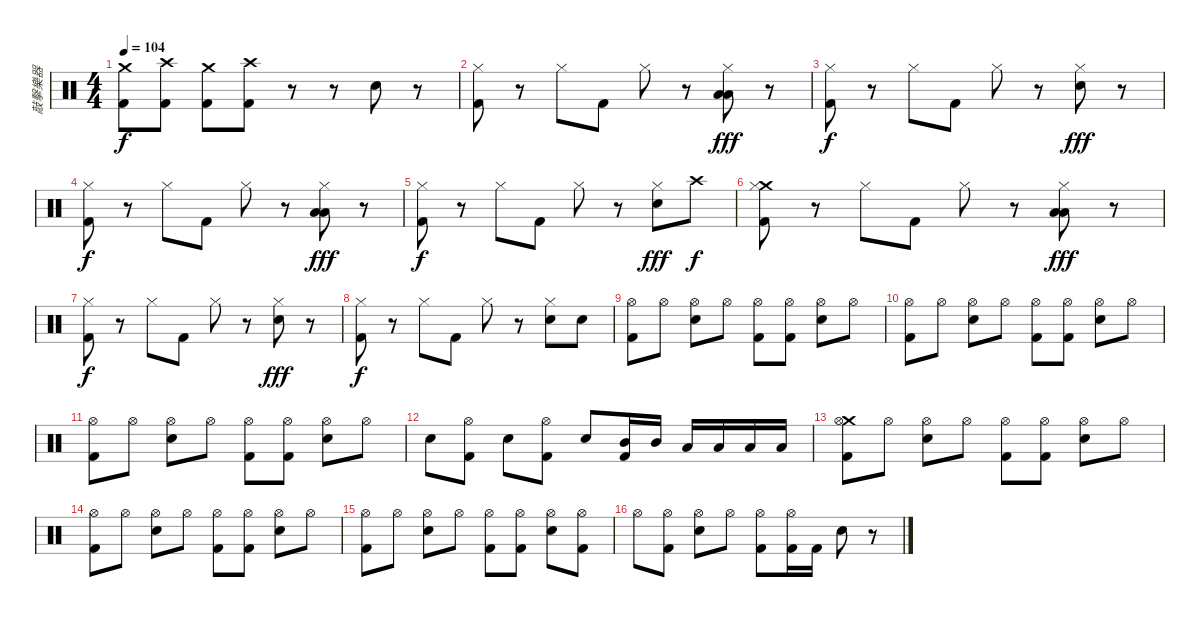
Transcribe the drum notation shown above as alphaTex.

\track ("敲擊樂器" "敲擊樂器") {instrument percussion}
\staff {score}
\articulation defaults
\ts (4 4)
\tempo 104
\clef neutral
\ks c
("Crash medium (hit)" "Kick (hit) 2").8{dy f} ("Crash high (hit)" "Kick (hit) 2").8 ("Crash medium (hit)" "Kick (hit) 2").8 ("Crash high (hit)" "Kick (hit) 2").8 r.8 r.8 "Electric Snare (hit)".8 r.8 |
("Hi-Hat (closed)" "Kick (hit) 2").8 r.8 "Hi-Hat (closed)".8 "Kick (hit) 2".8 "Hi-Hat (closed)".8 r.8 ("Hi-Hat (closed)" "Low Floor Tom (hit)" "Low Floor Tom (hit)").8{dy fff} r.8 |
("Hi-Hat (closed)" "Kick (hit) 2").8{dy f} r.8 "Hi-Hat (closed)".8 "Kick (hit) 2".8 "Hi-Hat (closed)".8 r.8 ("Hi-Hat (closed)" "Electric Snare (hit)").8{dy fff} r.8 |
("Hi-Hat (closed)" "Kick (hit) 2").8{dy f} r.8 "Hi-Hat (closed)".8 "Kick (hit) 2".8 "Hi-Hat (closed)".8 r.8 ("Hi-Hat (closed)" "Low Floor Tom (hit)" "Low Floor Tom (hit)").8{dy fff} r.8 |
("Hi-Hat (closed)" "Kick (hit) 2").8{dy f} r.8 "Hi-Hat (closed)".8 "Kick (hit) 2".8 "Hi-Hat (closed)".8 r.8 ("Hi-Hat (closed)" "Electric Snare (hit)").8{dy fff} "Crash high (hit)".8{dy f} |
("Crash medium (hit)" "Hi-Hat (closed)" "Kick (hit) 2").8 r.8 "Hi-Hat (closed)".8 "Kick (hit) 2".8 "Hi-Hat (closed)".8 r.8 ("Hi-Hat (closed)" "Low Floor Tom (hit)" "Low Floor Tom (hit)").8{dy fff} r.8 |
("Hi-Hat (closed)" "Kick (hit) 2").8{dy f} r.8 "Hi-Hat (closed)".8 "Kick (hit) 2".8 "Hi-Hat (closed)".8 r.8 ("Hi-Hat (closed)" "Electric Snare (hit)").8{dy fff} r.8 |
("Hi-Hat (closed)" "Kick (hit) 2").8{dy f} r.8 "Hi-Hat (closed)".8 "Kick (hit) 2".8 "Hi-Hat (closed)".8 r.8 ("Hi-Hat (closed)" "Electric Snare (hit)").8 "Electric Snare (hit)".8 |
("Hi-Hat (open)" "Kick (hit) 2").8 "Hi-Hat (open)".8 ("Hi-Hat (open)" "Electric Snare (hit)").8 "Hi-Hat (open)".8 ("Hi-Hat (open)" "Kick (hit) 2").8 ("Hi-Hat (open)" "Kick (hit) 2").8 ("Hi-Hat (open)" "Electric Snare (hit)").8 "Hi-Hat (open)".8 |
("Hi-Hat (open)" "Kick (hit) 2").8 "Hi-Hat (open)".8 ("Hi-Hat (open)" "Electric Snare (hit)").8 "Hi-Hat (open)".8 ("Hi-Hat (open)" "Kick (hit) 2").8 ("Hi-Hat (open)" "Kick (hit) 2").8 ("Hi-Hat (open)" "Electric Snare (hit)").8 "Hi-Hat (open)".8 |
("Hi-Hat (open)" "Kick (hit) 2").8 "Hi-Hat (open)".8 ("Hi-Hat (open)" "Electric Snare (hit)").8 "Hi-Hat (open)".8 ("Hi-Hat (open)" "Kick (hit) 2").8 ("Hi-Hat (open)" "Kick (hit) 2").8 ("Hi-Hat (open)" "Electric Snare (hit)").8 "Hi-Hat (open)".8 |
"Electric Snare (hit)".8 ("Hi-Hat (open)" "Kick (hit) 2").8 "Electric Snare (hit)".8 ("Hi-Hat (open)" "Kick (hit) 2").8 "Electric Snare (hit)".8 ("Mid Tom (hit)" "Kick (hit) 2").16 "Mid Tom (hit)".16 "Low Tom (hit)".16 "Low Tom (hit)".16 "Low Floor Tom (hit)".16 "Low Floor Tom (hit)".16 |
("Crash medium (hit)" "Hi-Hat (open)" "Kick (hit) 2").8 "Hi-Hat (open)".8 ("Hi-Hat (open)" "Electric Snare (hit)").8 "Hi-Hat (open)".8 ("Hi-Hat (open)" "Kick (hit) 2").8 ("Hi-Hat (open)" "Kick (hit) 2").8 ("Hi-Hat (open)" "Electric Snare (hit)").8 "Hi-Hat (open)".8 |
("Hi-Hat (open)" "Kick (hit) 2").8 "Hi-Hat (open)".8 ("Hi-Hat (open)" "Electric Snare (hit)").8 "Hi-Hat (open)".8 ("Hi-Hat (open)" "Kick (hit) 2").8 ("Hi-Hat (open)" "Kick (hit) 2").8 ("Hi-Hat (open)" "Electric Snare (hit)").8 "Hi-Hat (open)".8 |
("Hi-Hat (open)" "Kick (hit) 2").8 "Hi-Hat (open)".8 ("Hi-Hat (open)" "Electric Snare (hit)").8 "Hi-Hat (open)".8 ("Hi-Hat (open)" "Kick (hit) 2").8 ("Hi-Hat (open)" "Kick (hit) 2").8 ("Hi-Hat (open)" "Electric Snare (hit)").8 ("Hi-Hat (open)" "Kick (hit) 2").8 |
"Hi-Hat (open)".8 ("Hi-Hat (open)" "Kick (hit) 2").8 ("Hi-Hat (open)" "Electric Snare (hit)").8 "Hi-Hat (open)".8 ("Hi-Hat (open)" "Kick (hit) 2").8 ("Hi-Hat (open)" "Kick (hit) 2").16 "Kick (hit) 2".16 "Electric Snare (hit)".8 r.8
